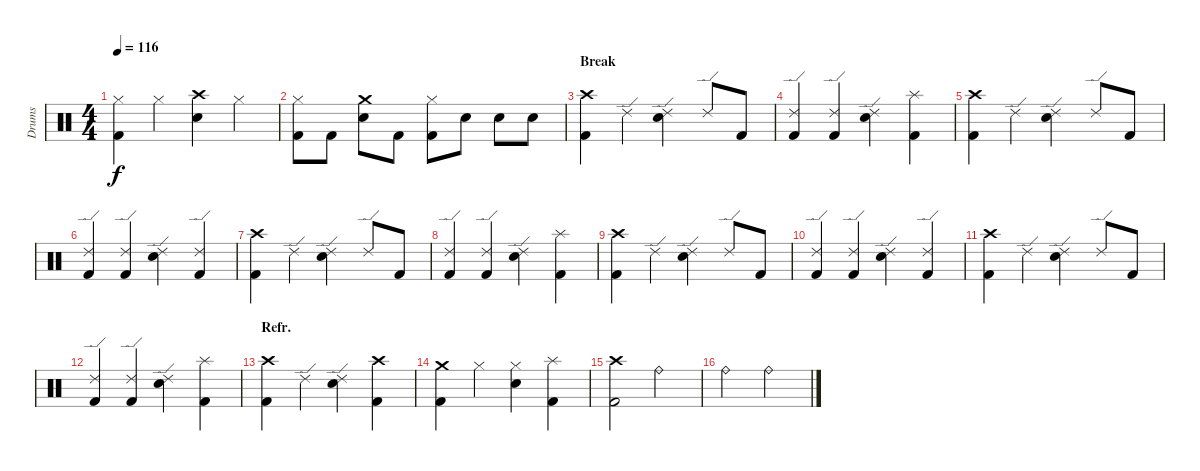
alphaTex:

\track ("Drums" "Drums") {instrument percussion}
\staff {score}
\articulation defaults
\ts (4 4)
\tempo 116
\clef neutral
\ks c
("Hi-Hat (closed)" "Kick (hit) 2").4{dy f} "Hi-Hat (closed)".4 ("Crash high (hit)" "Snare (hit) 2").4 "Hi-Hat (closed)".4 |
("Hi-Hat (closed)" "Kick (hit) 2").8 "Kick (hit) 2".8 ("Crash medium (hit)" "Snare (hit) 2").8 "Kick (hit) 2".8 ("Hi-Hat (closed)" "Kick (hit) 2").8 "Snare (hit) 2".8 "Snare (hit) 2".8 "Snare (hit) 2".8 |
\section ("" "Break")
("Crash high (hit)" "Kick (hit) 2").4 "Ride (edge) 2".4 ("Ride (edge) 2" "Snare (hit) 2").4 "Ride (edge) 2".8 "Kick (hit) 2".8 |
("Ride (edge) 2" "Kick (hit) 2").4 ("Ride (edge) 2" "Kick (hit) 2").4 ("Ride (edge) 2" "Snare (hit) 2").4 ("Splash (hit)" "Kick (hit) 2").4 |
("Crash high (hit)" "Kick (hit) 2").4 "Ride (edge) 2".4 ("Ride (edge) 2" "Snare (hit) 2").4 "Ride (edge) 2".8 "Kick (hit) 2".8 |
("Ride (edge) 2" "Kick (hit) 2").4 ("Ride (edge) 2" "Kick (hit) 2").4 ("Ride (edge) 2" "Snare (hit) 2").4 ("Ride (edge) 2" "Kick (hit) 2").4 |
("Crash high (hit)" "Kick (hit) 2").4 "Ride (edge) 2".4 ("Ride (edge) 2" "Snare (hit) 2").4 "Ride (edge) 2".8 "Kick (hit) 2".8 |
("Ride (edge) 2" "Kick (hit) 2").4 ("Ride (edge) 2" "Kick (hit) 2").4 ("Ride (edge) 2" "Snare (hit) 2").4 ("Splash (hit)" "Kick (hit) 2").4 |
("Crash high (hit)" "Kick (hit) 2").4 "Ride (edge) 2".4 ("Ride (edge) 2" "Snare (hit) 2").4 "Ride (edge) 2".8 "Kick (hit) 2".8 |
("Ride (edge) 2" "Kick (hit) 2").4 ("Ride (edge) 2" "Kick (hit) 2").4 ("Ride (edge) 2" "Snare (hit) 2").4 ("Ride (edge) 2" "Kick (hit) 2").4 |
("Crash high (hit)" "Kick (hit) 2").4 "Ride (edge) 2".4 ("Ride (edge) 2" "Snare (hit) 2").4 "Ride (edge) 2".8 "Kick (hit) 2".8 |
("Ride (edge) 2" "Kick (hit) 2").4 ("Ride (edge) 2" "Kick (hit) 2").4 ("Ride (edge) 2" "Snare (hit) 2").4 ("Splash (hit)" "Kick (hit) 2").4 |
\section ("" "Refr.")
("Crash high (hit)" "Kick (hit) 2").4 "Ride (edge) 2".4 ("Ride (edge) 2" "Snare (hit) 2").4 ("Crash high (hit)" "Kick (hit) 2").4 |
("Crash medium (hit)" "Kick (hit) 2").4 "Hi-Hat (closed)".4 ("Hi-Hat (closed)" "Snare (hit) 2").4 ("Splash (hit)" "Kick (hit) 2").4 |
("Crash high (hit)" "Kick (hit) 2").2 "Ride (bell)".2 |
"Ride (bell)".2 "Ride (bell)".2
